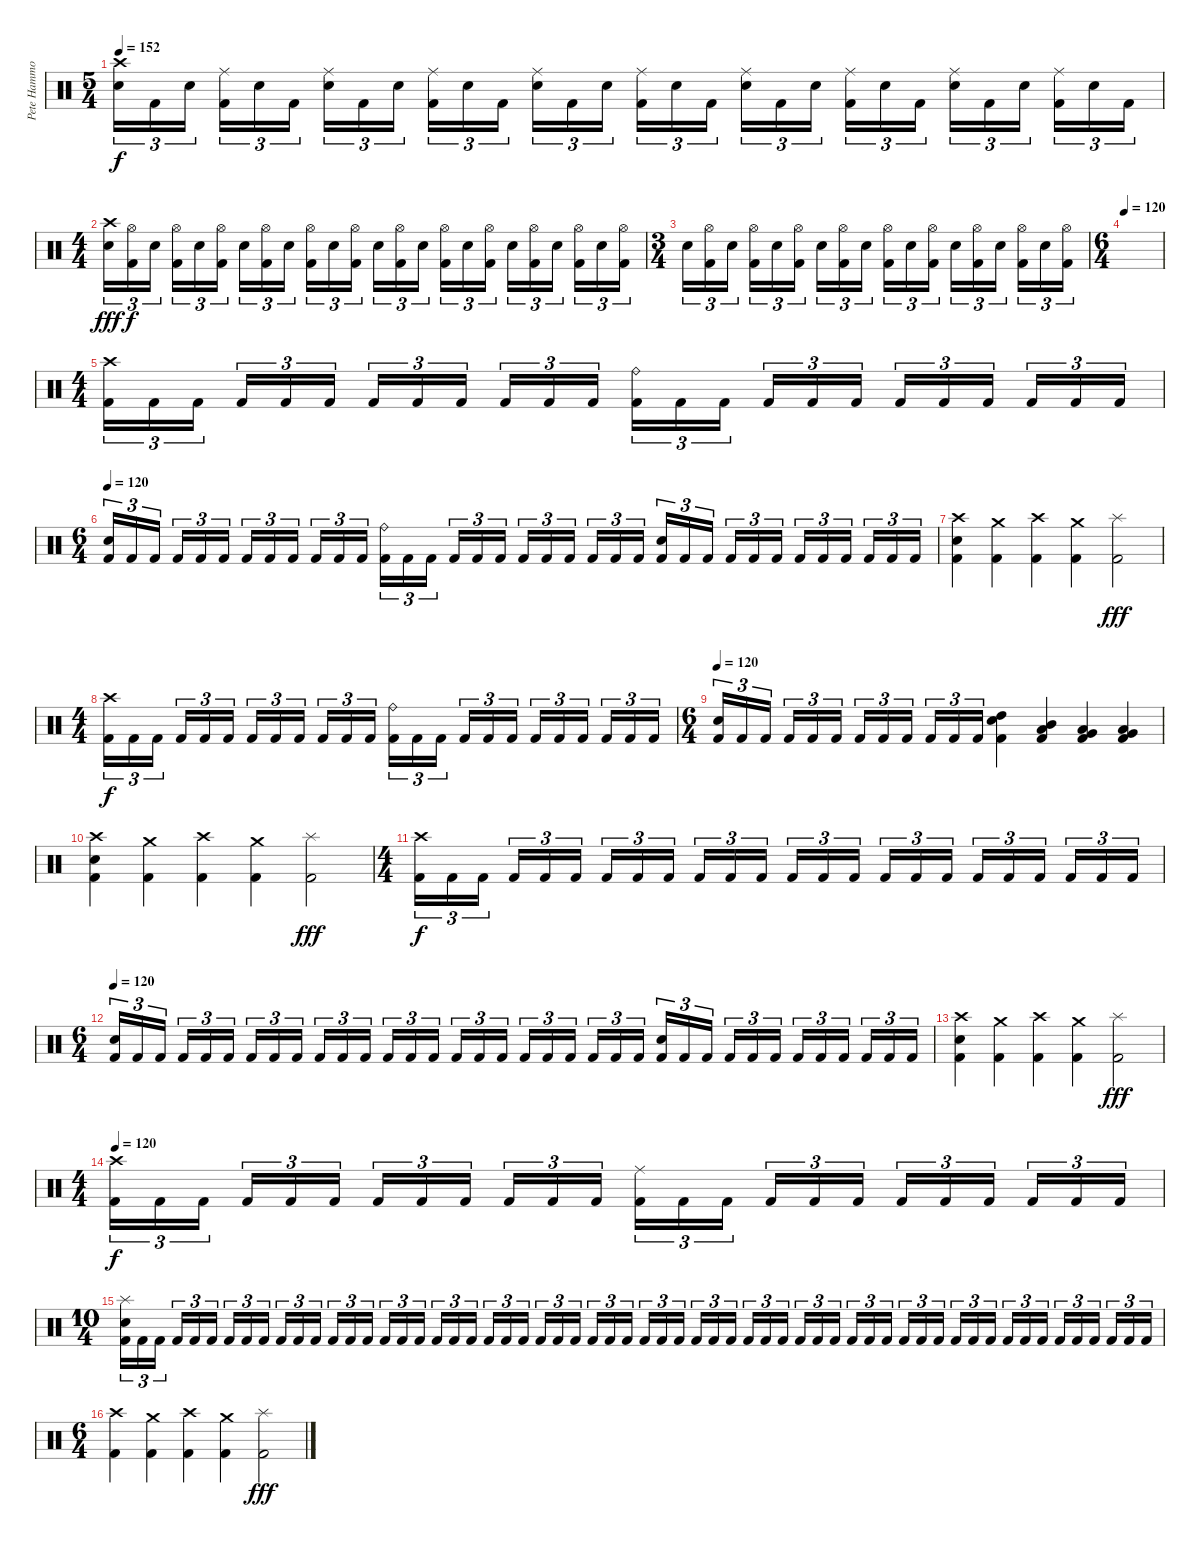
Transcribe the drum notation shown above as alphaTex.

\track ("Pete Hammoura" "Pete Hammo") {instrument percussion}
\staff {score}
\articulation defaults
\ts (5 4)
\tempo 152
\clef neutral
\ks c
("Crash high (hit)" "Electric Snare (hit)").16{tu (3 2) dy f} "Kick (hit) 2".16{tu (3 2)} "Electric Snare (hit)".16{tu (3 2)} ("Ride (middle)" "Kick (hit) 2").16{tu (3 2)} "Electric Snare (hit)".16{tu (3 2)} "Kick (hit) 2".16{tu (3 2)} ("Ride (middle)" "Electric Snare (hit)").16{tu (3 2)} "Kick (hit) 2".16{tu (3 2)} "Electric Snare (hit)".16{tu (3 2)} ("Ride (middle)" "Kick (hit) 2").16{tu (3 2)} "Electric Snare (hit)".16{tu (3 2)} "Kick (hit) 2".16{tu (3 2)} ("Ride (middle)" "Electric Snare (hit)").16{tu (3 2)} "Kick (hit) 2".16{tu (3 2)} "Electric Snare (hit)".16{tu (3 2)} ("Ride (middle)" "Kick (hit) 2").16{tu (3 2)} "Electric Snare (hit)".16{tu (3 2)} "Kick (hit) 2".16{tu (3 2)} ("Ride (middle)" "Electric Snare (hit)").16{tu (3 2)} "Kick (hit) 2".16{tu (3 2)} "Electric Snare (hit)".16{tu (3 2)} ("Ride (middle)" "Kick (hit) 2").16{tu (3 2)} "Electric Snare (hit)".16{tu (3 2)} "Kick (hit) 2".16{tu (3 2)} ("Ride (middle)" "Electric Snare (hit)").16{tu (3 2)} "Kick (hit) 2".16{tu (3 2)} "Electric Snare (hit)".16{tu (3 2)} ("Ride (middle)" "Kick (hit) 2").16{tu (3 2)} "Electric Snare (hit)".16{tu (3 2)} "Kick (hit) 2".16{tu (3 2)} |
\ts (4 4)
("Crash high (hit)" "Electric Snare (hit)").16{tu (3 2) dy fff} ("Hi-Hat (open)" "Kick (hit) 2").16{tu (3 2) dy f} "Electric Snare (hit)".16{tu (3 2)} ("Hi-Hat (open)" "Kick (hit) 2").16{tu (3 2)} "Electric Snare (hit)".16{tu (3 2)} ("Hi-Hat (open)" "Kick (hit) 2").16{tu (3 2)} "Electric Snare (hit)".16{tu (3 2)} ("Hi-Hat (open)" "Kick (hit) 2").16{tu (3 2)} "Electric Snare (hit)".16{tu (3 2)} ("Hi-Hat (open)" "Kick (hit) 2").16{tu (3 2)} "Electric Snare (hit)".16{tu (3 2)} ("Hi-Hat (open)" "Kick (hit) 2").16{tu (3 2)} "Electric Snare (hit)".16{tu (3 2)} ("Hi-Hat (open)" "Kick (hit) 2").16{tu (3 2)} "Electric Snare (hit)".16{tu (3 2)} ("Hi-Hat (open)" "Kick (hit) 2").16{tu (3 2)} "Electric Snare (hit)".16{tu (3 2)} ("Hi-Hat (open)" "Kick (hit) 2").16{tu (3 2)} "Electric Snare (hit)".16{tu (3 2)} ("Hi-Hat (open)" "Kick (hit) 2").16{tu (3 2)} "Electric Snare (hit)".16{tu (3 2)} ("Hi-Hat (open)" "Kick (hit) 2").16{tu (3 2)} "Electric Snare (hit)".16{tu (3 2)} ("Hi-Hat (open)" "Kick (hit) 2").16{tu (3 2)} |
\ts (3 4)
"Electric Snare (hit)".16{tu (3 2)} ("Hi-Hat (open)" "Kick (hit) 2").16{tu (3 2)} "Electric Snare (hit)".16{tu (3 2)} ("Hi-Hat (open)" "Kick (hit) 2").16{tu (3 2)} "Electric Snare (hit)".16{tu (3 2)} ("Hi-Hat (open)" "Kick (hit) 2").16{tu (3 2)} "Electric Snare (hit)".16{tu (3 2)} ("Hi-Hat (open)" "Kick (hit) 2").16{tu (3 2)} "Electric Snare (hit)".16{tu (3 2)} ("Hi-Hat (open)" "Kick (hit) 2").16{tu (3 2)} "Electric Snare (hit)".16{tu (3 2)} ("Hi-Hat (open)" "Kick (hit) 2").16{tu (3 2)} "Electric Snare (hit)".16{tu (3 2)} ("Hi-Hat (open)" "Kick (hit) 2").16{tu (3 2)} "Electric Snare (hit)".16{tu (3 2)} ("Hi-Hat (open)" "Kick (hit) 2").16{tu (3 2)} "Electric Snare (hit)".16{tu (3 2)} ("Hi-Hat (open)" "Kick (hit) 2").16{tu (3 2)} |
\ts (6 4)
\tempo 120
|
\ts (4 4)
("Crash high (hit)" "Kick (hit) 2").16{tu (3 2)} "Kick (hit) 2".16{tu (3 2)} "Kick (hit) 2".16{tu (3 2)} "Kick (hit) 2".16{tu (3 2)} "Kick (hit) 2".16{tu (3 2)} "Kick (hit) 2".16{tu (3 2)} "Kick (hit) 2".16{tu (3 2)} "Kick (hit) 2".16{tu (3 2)} "Kick (hit) 2".16{tu (3 2)} "Kick (hit) 2".16{tu (3 2)} "Kick (hit) 2".16{tu (3 2)} "Kick (hit) 2".16{tu (3 2)} ("Ride (bell)" "Kick (hit) 2").16{tu (3 2)} "Kick (hit) 2".16{tu (3 2)} "Kick (hit) 2".16{tu (3 2)} "Kick (hit) 2".16{tu (3 2)} "Kick (hit) 2".16{tu (3 2)} "Kick (hit) 2".16{tu (3 2)} "Kick (hit) 2".16{tu (3 2)} "Kick (hit) 2".16{tu (3 2)} "Kick (hit) 2".16{tu (3 2)} "Kick (hit) 2".16{tu (3 2)} "Kick (hit) 2".16{tu (3 2)} "Kick (hit) 2".16{tu (3 2)} |
\ts (6 4)
\tempo 120
("Electric Snare (hit)" "Kick (hit) 2").16{tu (3 2)} "Kick (hit) 2".16{tu (3 2)} "Kick (hit) 2".16{tu (3 2)} "Kick (hit) 2".16{tu (3 2)} "Kick (hit) 2".16{tu (3 2)} "Kick (hit) 2".16{tu (3 2)} "Kick (hit) 2".16{tu (3 2)} "Kick (hit) 2".16{tu (3 2)} "Kick (hit) 2".16{tu (3 2)} "Kick (hit) 2".16{tu (3 2)} "Kick (hit) 2".16{tu (3 2)} "Kick (hit) 2".16{tu (3 2)} ("Ride (bell)" "Kick (hit) 2").16{tu (3 2)} "Kick (hit) 2".16{tu (3 2)} "Kick (hit) 2".16{tu (3 2)} "Kick (hit) 2".16{tu (3 2)} "Kick (hit) 2".16{tu (3 2)} "Kick (hit) 2".16{tu (3 2)} "Kick (hit) 2".16{tu (3 2)} "Kick (hit) 2".16{tu (3 2)} "Kick (hit) 2".16{tu (3 2)} "Kick (hit) 2".16{tu (3 2)} "Kick (hit) 2".16{tu (3 2)} "Kick (hit) 2".16{tu (3 2)} ("Electric Snare (hit)" "Kick (hit) 2").16{tu (3 2)} "Kick (hit) 2".16{tu (3 2)} "Kick (hit) 2".16{tu (3 2)} "Kick (hit) 2".16{tu (3 2)} "Kick (hit) 2".16{tu (3 2)} "Kick (hit) 2".16{tu (3 2)} "Kick (hit) 2".16{tu (3 2)} "Kick (hit) 2".16{tu (3 2)} "Kick (hit) 2".16{tu (3 2)} "Kick (hit) 2".16{tu (3 2)} "Kick (hit) 2".16{tu (3 2)} "Kick (hit) 2".16{tu (3 2)} |
("Crash high (hit)" "Electric Snare (hit)" "Kick (hit) 2").4 ("Crash medium (hit)" "Kick (hit) 2").4 ("Crash high (hit)" "Kick (hit) 2").4 ("Crash medium (hit)" "Kick (hit) 2").4 ("Splash (hit)" "Kick (hit) 2").2{dy fff} |
\ts (4 4)
("Crash high (hit)" "Kick (hit) 2").16{tu (3 2) dy f} "Kick (hit) 2".16{tu (3 2)} "Kick (hit) 2".16{tu (3 2)} "Kick (hit) 2".16{tu (3 2)} "Kick (hit) 2".16{tu (3 2)} "Kick (hit) 2".16{tu (3 2)} "Kick (hit) 2".16{tu (3 2)} "Kick (hit) 2".16{tu (3 2)} "Kick (hit) 2".16{tu (3 2)} "Kick (hit) 2".16{tu (3 2)} "Kick (hit) 2".16{tu (3 2)} "Kick (hit) 2".16{tu (3 2)} ("Ride (bell)" "Kick (hit) 2").16{tu (3 2)} "Kick (hit) 2".16{tu (3 2)} "Kick (hit) 2".16{tu (3 2)} "Kick (hit) 2".16{tu (3 2)} "Kick (hit) 2".16{tu (3 2)} "Kick (hit) 2".16{tu (3 2)} "Kick (hit) 2".16{tu (3 2)} "Kick (hit) 2".16{tu (3 2)} "Kick (hit) 2".16{tu (3 2)} "Kick (hit) 2".16{tu (3 2)} "Kick (hit) 2".16{tu (3 2)} "Kick (hit) 2".16{tu (3 2)} |
\ts (6 4)
\tempo 120
("Electric Snare (hit)" "Kick (hit) 2").16{tu (3 2)} "Kick (hit) 2".16{tu (3 2)} "Kick (hit) 2".16{tu (3 2)} "Kick (hit) 2".16{tu (3 2)} "Kick (hit) 2".16{tu (3 2)} "Kick (hit) 2".16{tu (3 2)} "Kick (hit) 2".16{tu (3 2)} "Kick (hit) 2".16{tu (3 2)} "Kick (hit) 2".16{tu (3 2)} "Kick (hit) 2".16{tu (3 2)} "Kick (hit) 2".16{tu (3 2)} "Kick (hit) 2".16{tu (3 2)} ("High Tom (hit)" "Electric Snare (hit)" "Kick (hit) 2").4 ("Mid Tom (hit)" "Low Tom (hit)" "Kick (hit) 2").4 ("Low Tom (hit)" "Very Low Tom (hit)" "Kick (hit) 2").4 ("Very Low Tom (hit)" "Low Floor Tom (hit)" "Kick (hit) 2").4 |
("Crash high (hit)" "Electric Snare (hit)" "Kick (hit) 2").4 ("Crash medium (hit)" "Kick (hit) 2").4 ("Crash high (hit)" "Kick (hit) 2").4 ("Crash medium (hit)" "Kick (hit) 2").4 ("Splash (hit)" "Kick (hit) 2").2{dy fff} |
\ts (4 4)
("Crash high (hit)" "Kick (hit) 2").16{tu (3 2) dy f} "Kick (hit) 2".16{tu (3 2)} "Kick (hit) 2".16{tu (3 2)} "Kick (hit) 2".16{tu (3 2)} "Kick (hit) 2".16{tu (3 2)} "Kick (hit) 2".16{tu (3 2)} "Kick (hit) 2".16{tu (3 2)} "Kick (hit) 2".16{tu (3 2)} "Kick (hit) 2".16{tu (3 2)} "Kick (hit) 2".16{tu (3 2)} "Kick (hit) 2".16{tu (3 2)} "Kick (hit) 2".16{tu (3 2)} "Kick (hit) 2".16{tu (3 2)} "Kick (hit) 2".16{tu (3 2)} "Kick (hit) 2".16{tu (3 2)} "Kick (hit) 2".16{tu (3 2)} "Kick (hit) 2".16{tu (3 2)} "Kick (hit) 2".16{tu (3 2)} "Kick (hit) 2".16{tu (3 2)} "Kick (hit) 2".16{tu (3 2)} "Kick (hit) 2".16{tu (3 2)} "Kick (hit) 2".16{tu (3 2)} "Kick (hit) 2".16{tu (3 2)} "Kick (hit) 2".16{tu (3 2)} |
\ts (6 4)
\tempo 120
("Electric Snare (hit)" "Kick (hit) 2").16{tu (3 2)} "Kick (hit) 2".16{tu (3 2)} "Kick (hit) 2".16{tu (3 2)} "Kick (hit) 2".16{tu (3 2)} "Kick (hit) 2".16{tu (3 2)} "Kick (hit) 2".16{tu (3 2)} "Kick (hit) 2".16{tu (3 2)} "Kick (hit) 2".16{tu (3 2)} "Kick (hit) 2".16{tu (3 2)} "Kick (hit) 2".16{tu (3 2)} "Kick (hit) 2".16{tu (3 2)} "Kick (hit) 2".16{tu (3 2)} "Kick (hit) 2".16{tu (3 2)} "Kick (hit) 2".16{tu (3 2)} "Kick (hit) 2".16{tu (3 2)} "Kick (hit) 2".16{tu (3 2)} "Kick (hit) 2".16{tu (3 2)} "Kick (hit) 2".16{tu (3 2)} "Kick (hit) 2".16{tu (3 2)} "Kick (hit) 2".16{tu (3 2)} "Kick (hit) 2".16{tu (3 2)} "Kick (hit) 2".16{tu (3 2)} "Kick (hit) 2".16{tu (3 2)} "Kick (hit) 2".16{tu (3 2)} ("Electric Snare (hit)" "Kick (hit) 2").16{tu (3 2)} "Kick (hit) 2".16{tu (3 2)} "Kick (hit) 2".16{tu (3 2)} "Kick (hit) 2".16{tu (3 2)} "Kick (hit) 2".16{tu (3 2)} "Kick (hit) 2".16{tu (3 2)} "Kick (hit) 2".16{tu (3 2)} "Kick (hit) 2".16{tu (3 2)} "Kick (hit) 2".16{tu (3 2)} "Kick (hit) 2".16{tu (3 2)} "Kick (hit) 2".16{tu (3 2)} "Kick (hit) 2".16{tu (3 2)} |
("Crash high (hit)" "Electric Snare (hit)" "Kick (hit) 2").4 ("Crash medium (hit)" "Kick (hit) 2").4 ("Crash high (hit)" "Kick (hit) 2").4 ("Crash medium (hit)" "Kick (hit) 2").4 ("Splash (hit)" "Kick (hit) 2").2{dy fff} |
\ts (4 4)
\tempo 120
("Crash high (hit)" "Kick (hit) 2").16{tu (3 2) dy f} "Kick (hit) 2".16{tu (3 2)} "Kick (hit) 2".16{tu (3 2)} "Kick (hit) 2".16{tu (3 2)} "Kick (hit) 2".16{tu (3 2)} "Kick (hit) 2".16{tu (3 2)} "Kick (hit) 2".16{tu (3 2)} "Kick (hit) 2".16{tu (3 2)} "Kick (hit) 2".16{tu (3 2)} "Kick (hit) 2".16{tu (3 2)} "Kick (hit) 2".16{tu (3 2)} "Kick (hit) 2".16{tu (3 2)} ("Ride (middle)" "Kick (hit) 2").16{tu (3 2)} "Kick (hit) 2".16{tu (3 2)} "Kick (hit) 2".16{tu (3 2)} "Kick (hit) 2".16{tu (3 2)} "Kick (hit) 2".16{tu (3 2)} "Kick (hit) 2".16{tu (3 2)} "Kick (hit) 2".16{tu (3 2)} "Kick (hit) 2".16{tu (3 2)} "Kick (hit) 2".16{tu (3 2)} "Kick (hit) 2".16{tu (3 2)} "Kick (hit) 2".16{tu (3 2)} "Kick (hit) 2".16{tu (3 2)} |
\ts (10 4)
("Splash (hit)" "Electric Snare (hit)" "Kick (hit) 2").16{tu (3 2)} "Kick (hit) 2".16{tu (3 2)} "Kick (hit) 2".16{tu (3 2)} "Kick (hit) 2".16{tu (3 2)} "Kick (hit) 2".16{tu (3 2)} "Kick (hit) 2".16{tu (3 2)} "Kick (hit) 2".16{tu (3 2)} "Kick (hit) 2".16{tu (3 2)} "Kick (hit) 2".16{tu (3 2)} "Kick (hit) 2".16{tu (3 2)} "Kick (hit) 2".16{tu (3 2)} "Kick (hit) 2".16{tu (3 2)} "Kick (hit) 2".16{tu (3 2)} "Kick (hit) 2".16{tu (3 2)} "Kick (hit) 2".16{tu (3 2)} "Kick (hit) 2".16{tu (3 2)} "Kick (hit) 2".16{tu (3 2)} "Kick (hit) 2".16{tu (3 2)} "Kick (hit) 2".16{tu (3 2)} "Kick (hit) 2".16{tu (3 2)} "Kick (hit) 2".16{tu (3 2)} "Kick (hit) 2".16{tu (3 2)} "Kick (hit) 2".16{tu (3 2)} "Kick (hit) 2".16{tu (3 2)} "Kick (hit) 2".16{tu (3 2)} "Kick (hit) 2".16{tu (3 2)} "Kick (hit) 2".16{tu (3 2)} "Kick (hit) 2".16{tu (3 2)} "Kick (hit) 2".16{tu (3 2)} "Kick (hit) 2".16{tu (3 2)} "Kick (hit) 2".16{tu (3 2)} "Kick (hit) 2".16{tu (3 2)} "Kick (hit) 2".16{tu (3 2)} "Kick (hit) 2".16{tu (3 2)} "Kick (hit) 2".16{tu (3 2)} "Kick (hit) 2".16{tu (3 2)} "Kick (hit) 2".16{tu (3 2)} "Kick (hit) 2".16{tu (3 2)} "Kick (hit) 2".16{tu (3 2)} "Kick (hit) 2".16{tu (3 2)} "Kick (hit) 2".16{tu (3 2)} "Kick (hit) 2".16{tu (3 2)} "Kick (hit) 2".16{tu (3 2)} "Kick (hit) 2".16{tu (3 2)} "Kick (hit) 2".16{tu (3 2)} "Kick (hit) 2".16{tu (3 2)} "Kick (hit) 2".16{tu (3 2)} "Kick (hit) 2".16{tu (3 2)} "Kick (hit) 2".16{tu (3 2)} "Kick (hit) 2".16{tu (3 2)} "Kick (hit) 2".16{tu (3 2)} "Kick (hit) 2".16{tu (3 2)} "Kick (hit) 2".16{tu (3 2)} "Kick (hit) 2".16{tu (3 2)} "Kick (hit) 2".16{tu (3 2)} "Kick (hit) 2".16{tu (3 2)} "Kick (hit) 2".16{tu (3 2)} "Kick (hit) 2".16{tu (3 2)} "Kick (hit) 2".16{tu (3 2)} "Kick (hit) 2".16{tu (3 2)} |
\ts (6 4)
("Crash high (hit)" "Kick (hit) 2").4 ("Crash medium (hit)" "Kick (hit) 2").4 ("Crash high (hit)" "Kick (hit) 2").4 ("Crash medium (hit)" "Kick (hit) 2").4 ("Splash (hit)" "Kick (hit) 2").2{dy fff}
